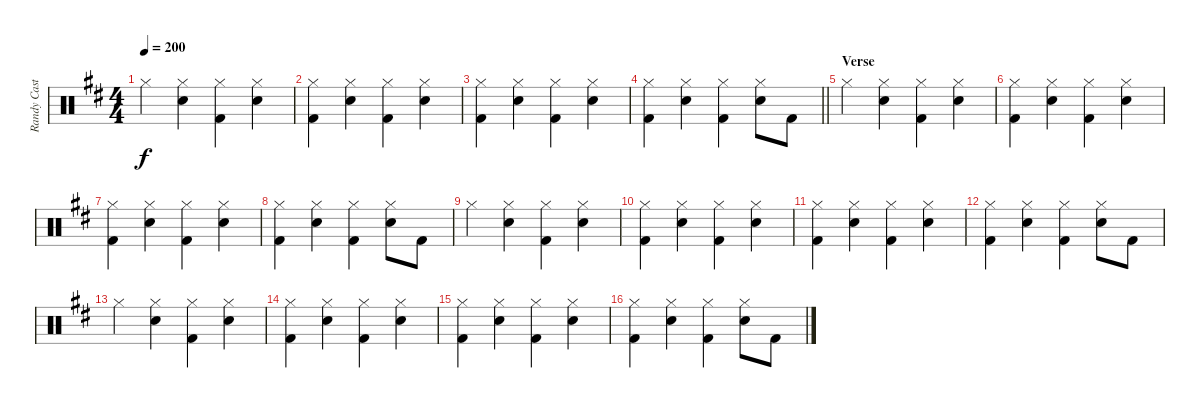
\track ("Randy Castillo" "Randy Cast") {instrument percussion}
\staff {score}
\articulation defaults
\ts (4 4)
\tempo 200
\clef neutral
\ks d "Hi-Hat (closed)".4{dy f}
("Hi-Hat (closed)" "Snare (hit) 2").4 ("Hi-Hat (closed)" "Kick (hit) 2").4 ("Hi-Hat (closed)" "Snare (hit) 2").4 |
("Hi-Hat (closed)" "Kick (hit) 2").4 ("Hi-Hat (closed)" "Snare (hit) 2").4 ("Hi-Hat (closed)" "Kick (hit) 2").4 ("Hi-Hat (closed)" "Snare (hit) 2").4 |
("Hi-Hat (closed)" "Kick (hit) 2").4 ("Hi-Hat (closed)" "Snare (hit) 2").4 ("Hi-Hat (closed)" "Kick (hit) 2").4 ("Hi-Hat (closed)" "Snare (hit) 2").4 |
\barLineRight lightlight
("Hi-Hat (closed)" "Kick (hit) 2").4 ("Hi-Hat (closed)" "Snare (hit) 2").4 ("Hi-Hat (closed)" "Kick (hit) 2").4 ("Hi-Hat (closed)" "Snare (hit) 2").8 "Kick (hit) 2".8 |
\section ("" "Verse")
"Hi-Hat (closed)".4 ("Hi-Hat (closed)" "Snare (hit) 2").4 ("Hi-Hat (closed)" "Kick (hit) 2").4 ("Hi-Hat (closed)" "Snare (hit) 2").4 |
("Hi-Hat (closed)" "Kick (hit) 2").4 ("Hi-Hat (closed)" "Snare (hit) 2").4 ("Hi-Hat (closed)" "Kick (hit) 2").4 ("Hi-Hat (closed)" "Snare (hit) 2").4 |
("Hi-Hat (closed)" "Kick (hit) 2").4 ("Hi-Hat (closed)" "Snare (hit) 2").4 ("Hi-Hat (closed)" "Kick (hit) 2").4 ("Hi-Hat (closed)" "Snare (hit) 2").4 |
("Hi-Hat (closed)" "Kick (hit) 2").4 ("Hi-Hat (closed)" "Snare (hit) 2").4 ("Hi-Hat (closed)" "Kick (hit) 2").4 ("Hi-Hat (closed)" "Snare (hit) 2").8 "Kick (hit) 2".8 |
"Hi-Hat (closed)".4 ("Hi-Hat (closed)" "Snare (hit) 2").4 ("Hi-Hat (closed)" "Kick (hit) 2").4 ("Hi-Hat (closed)" "Snare (hit) 2").4 |
("Hi-Hat (closed)" "Kick (hit) 2").4 ("Hi-Hat (closed)" "Snare (hit) 2").4 ("Hi-Hat (closed)" "Kick (hit) 2").4 ("Hi-Hat (closed)" "Snare (hit) 2").4 |
("Hi-Hat (closed)" "Kick (hit) 2").4 ("Hi-Hat (closed)" "Snare (hit) 2").4 ("Hi-Hat (closed)" "Kick (hit) 2").4 ("Hi-Hat (closed)" "Snare (hit) 2").4 |
("Hi-Hat (closed)" "Kick (hit) 2").4 ("Hi-Hat (closed)" "Snare (hit) 2").4 ("Hi-Hat (closed)" "Kick (hit) 2").4 ("Hi-Hat (closed)" "Snare (hit) 2").8 "Kick (hit) 2".8 |
"Hi-Hat (closed)".4 ("Hi-Hat (closed)" "Snare (hit) 2").4 ("Hi-Hat (closed)" "Kick (hit) 2").4 ("Hi-Hat (closed)" "Snare (hit) 2").4 |
("Hi-Hat (closed)" "Kick (hit) 2").4 ("Hi-Hat (closed)" "Snare (hit) 2").4 ("Hi-Hat (closed)" "Kick (hit) 2").4 ("Hi-Hat (closed)" "Snare (hit) 2").4 |
("Hi-Hat (closed)" "Kick (hit) 2").4 ("Hi-Hat (closed)" "Snare (hit) 2").4 ("Hi-Hat (closed)" "Kick (hit) 2").4 ("Hi-Hat (closed)" "Snare (hit) 2").4 |
("Hi-Hat (closed)" "Kick (hit) 2").4 ("Hi-Hat (closed)" "Snare (hit) 2").4 ("Hi-Hat (closed)" "Kick (hit) 2").4 ("Hi-Hat (closed)" "Snare (hit) 2").8 "Kick (hit) 2".8
